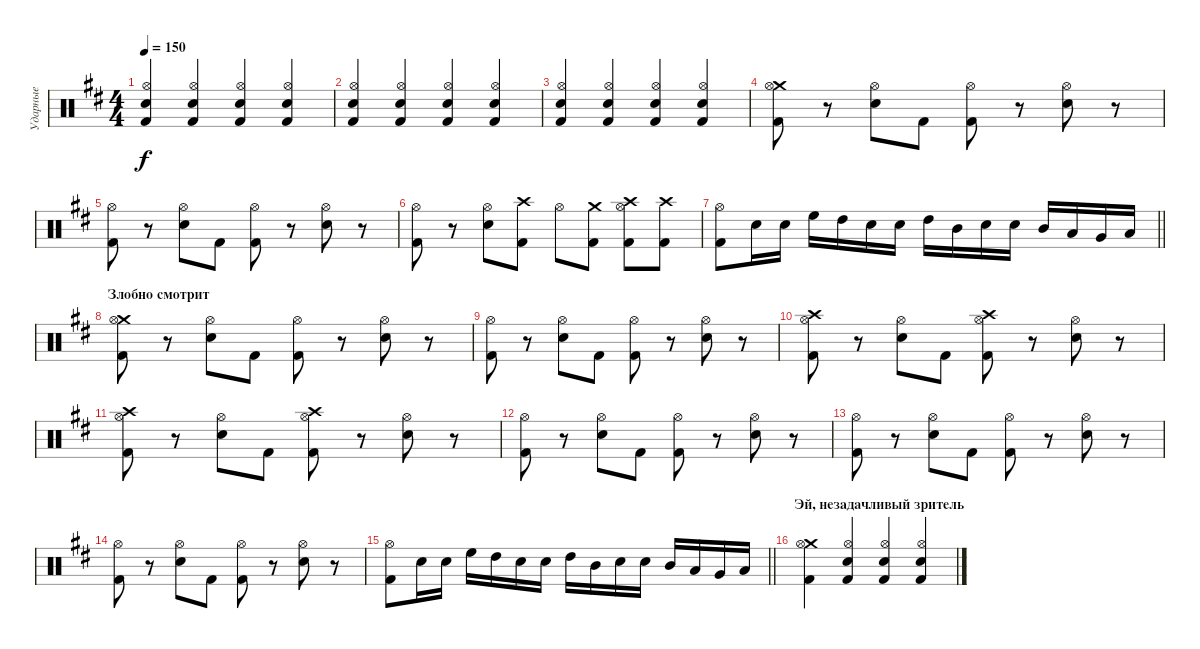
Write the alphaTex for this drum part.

\track ("Ударные" "Ударные") {instrument percussion}
\staff {score}
\articulation defaults
\ts (4 4)
\tempo 150
\clef neutral
\ks bminor
("Electric Snare (hit)" "Hi-Hat (open)" "Kick (hit) 2").4{dy f} ("Electric Snare (hit)" "Hi-Hat (open)" "Kick (hit) 2").4 ("Electric Snare (hit)" "Hi-Hat (open)" "Kick (hit) 2").4 ("Electric Snare (hit)" "Hi-Hat (open)" "Kick (hit) 2").4 |
("Electric Snare (hit)" "Hi-Hat (open)" "Kick (hit) 2").4 ("Electric Snare (hit)" "Hi-Hat (open)" "Kick (hit) 2").4 ("Electric Snare (hit)" "Hi-Hat (open)" "Kick (hit) 2").4 ("Electric Snare (hit)" "Hi-Hat (open)" "Kick (hit) 2").4 |
("Electric Snare (hit)" "Hi-Hat (open)" "Kick (hit) 2").4 ("Electric Snare (hit)" "Hi-Hat (open)" "Kick (hit) 2").4 ("Electric Snare (hit)" "Hi-Hat (open)" "Kick (hit) 2").4 ("Electric Snare (hit)" "Hi-Hat (open)" "Kick (hit) 2").4 |
("Crash medium (hit)" "Kick (hit) 2" "Hi-Hat (open)").8 r.8 ("Electric Snare (hit)" "Hi-Hat (open)").8 "Kick (hit) 2".8 ("Kick (hit) 2" "Hi-Hat (open)").8 r.8 ("Electric Snare (hit)" "Hi-Hat (open)").8 r.8 |
("Kick (hit) 2" "Hi-Hat (open)").8 r.8 ("Electric Snare (hit)" "Hi-Hat (open)").8 "Kick (hit) 2".8 ("Kick (hit) 2" "Hi-Hat (open)").8 r.8 ("Electric Snare (hit)" "Hi-Hat (open)").8 r.8 |
("Kick (hit) 2" "Hi-Hat (open)").8 r.8 ("Electric Snare (hit)" "Hi-Hat (open)").8 ("Crash high (hit)" "Kick (hit) 2").8 "Hi-Hat (open)".8 ("Crash medium (hit)" "Kick (hit) 2").8 ("Crash high (hit)" "Kick (hit) 2" "Hi-Hat (open)").8 ("Crash high (hit)" "Kick (hit) 2").8 |
\barLineRight lightlight
("Hi-Hat (open)" "Kick (hit) 2").8 "Electric Snare (hit)".16 "Electric Snare (hit)".16 "High Floor Tom (hit)".16 "High Tom (hit)".16 "Electric Snare (hit)".16 "Electric Snare (hit)".16 "High Tom (hit)".16 "Mid Tom (hit)".16 "Electric Snare (hit)".16 "Electric Snare (hit)".16 "Mid Tom (hit)".16 "Low Tom (hit)".16 "Very Low Tom (hit)".16 "Low Floor Tom (hit)".16 |
\section ("" "Злобно смотрит")
("Crash medium (hit)" "Kick (hit) 2" "Hi-Hat (open)").8 r.8 ("Electric Snare (hit)" "Hi-Hat (open)").8 "Kick (hit) 2".8 ("Kick (hit) 2" "Hi-Hat (open)").8 r.8 ("Electric Snare (hit)" "Hi-Hat (open)").8 r.8 |
("Kick (hit) 2" "Hi-Hat (open)").8 r.8 ("Electric Snare (hit)" "Hi-Hat (open)").8 "Kick (hit) 2".8 ("Kick (hit) 2" "Hi-Hat (open)").8 r.8 ("Electric Snare (hit)" "Hi-Hat (open)").8 r.8 |
("Crash high (hit)" "Kick (hit) 2" "Hi-Hat (open)").8 r.8 ("Electric Snare (hit)" "Hi-Hat (open)").8 "Kick (hit) 2".8 ("Crash high (hit)" "Kick (hit) 2" "Hi-Hat (open)").8 r.8 ("Electric Snare (hit)" "Hi-Hat (open)").8 r.8 |
("Crash high (hit)" "Kick (hit) 2" "Hi-Hat (open)").8 r.8 ("Electric Snare (hit)" "Hi-Hat (open)").8 "Kick (hit) 2".8 ("Crash high (hit)" "Kick (hit) 2" "Hi-Hat (open)").8 r.8 ("Electric Snare (hit)" "Hi-Hat (open)").8 r.8 |
("Kick (hit) 2" "Hi-Hat (open)").8 r.8 ("Electric Snare (hit)" "Hi-Hat (open)").8 "Kick (hit) 2".8 ("Kick (hit) 2" "Hi-Hat (open)").8 r.8 ("Electric Snare (hit)" "Hi-Hat (open)").8 r.8 |
("Kick (hit) 2" "Hi-Hat (open)").8 r.8 ("Electric Snare (hit)" "Hi-Hat (open)").8 "Kick (hit) 2".8 ("Kick (hit) 2" "Hi-Hat (open)").8 r.8 ("Electric Snare (hit)" "Hi-Hat (open)").8 r.8 |
("Kick (hit) 2" "Hi-Hat (open)").8 r.8 ("Electric Snare (hit)" "Hi-Hat (open)").8 "Kick (hit) 2".8 ("Kick (hit) 2" "Hi-Hat (open)").8 r.8 ("Electric Snare (hit)" "Hi-Hat (open)").8 r.8 |
\barLineRight lightlight
("Hi-Hat (open)" "Kick (hit) 2").8 "Electric Snare (hit)".16 "Electric Snare (hit)".16 "High Floor Tom (hit)".16 "High Tom (hit)".16 "Electric Snare (hit)".16 "Electric Snare (hit)".16 "High Tom (hit)".16 "Mid Tom (hit)".16 "Electric Snare (hit)".16 "Electric Snare (hit)".16 "Mid Tom (hit)".16 "Low Tom (hit)".16 "Very Low Tom (hit)".16 "Low Floor Tom (hit)".16 |
\section ("" "Эй, незадачливый зритель")
("Crash medium (hit)" "Kick (hit) 2" "Hi-Hat (open)").4 ("Electric Snare (hit)" "Hi-Hat (open)" "Kick (hit) 2").4 ("Electric Snare (hit)" "Hi-Hat (open)" "Kick (hit) 2").4 ("Electric Snare (hit)" "Hi-Hat (open)" "Kick (hit) 2").4
